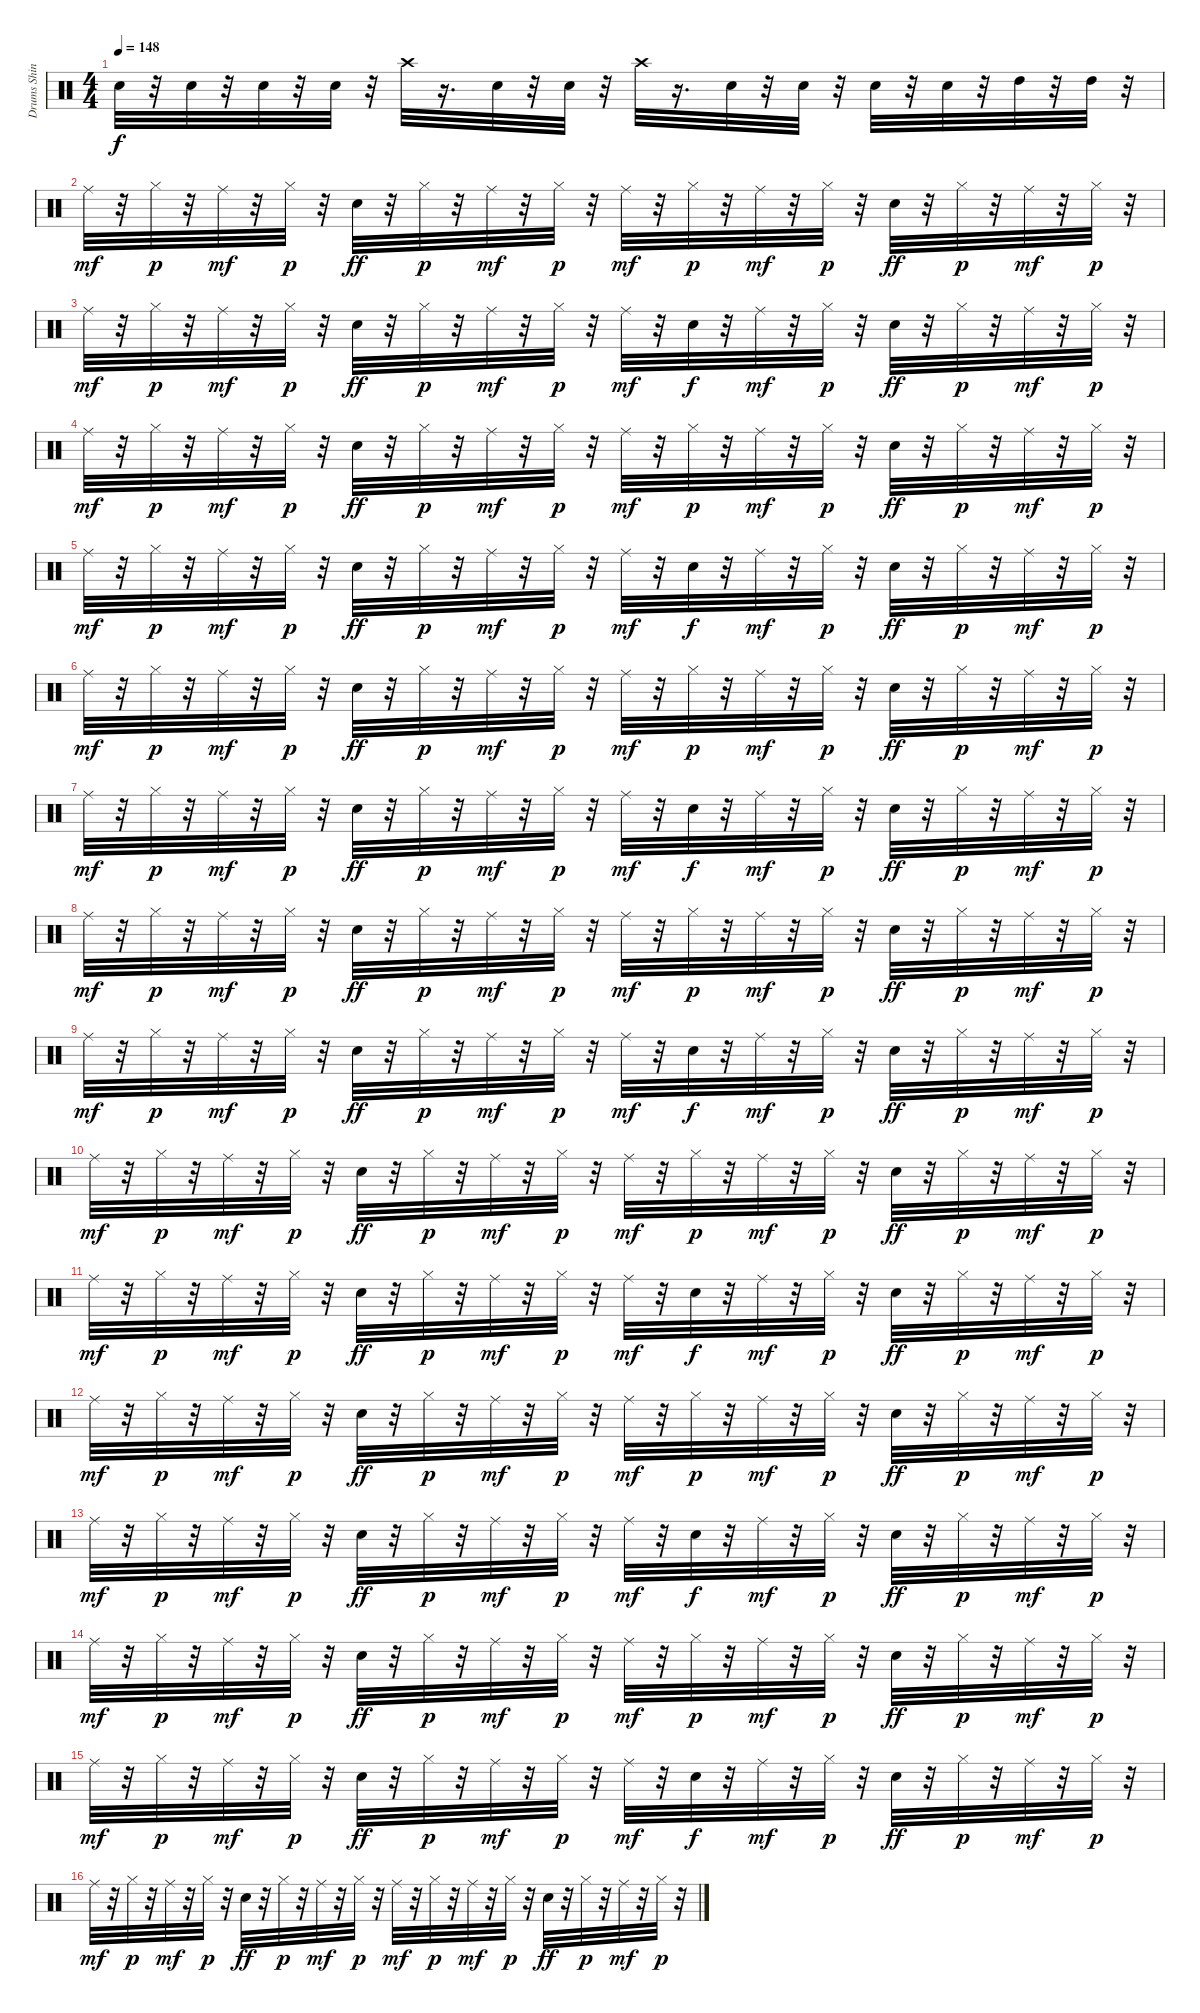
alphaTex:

\track ("Drums Shinya         " "Drums Shin") {instrument percussion}
\staff {score}
\articulation defaults
\ts (4 4)
\tempo 148
\clef neutral
\ks c "Electric Snare (hit)".32{dy f}
r.32 "Electric Snare (hit)".32 r.32 "Electric Snare (hit)".32 r.32 "Electric Snare (hit)".32 r.32 "Crash high (hit)".32 r.16{d} "Electric Snare (hit)".32 r.32 "Electric Snare (hit)".32 r.32 "Crash high (hit)".32 r.16{d} "Electric Snare (hit)".32 r.32 "Electric Snare (hit)".32 r.32 "Electric Snare (hit)".32 r.32 "Electric Snare (hit)".32 r.32 "High Tom (hit)".32 r.32 "High Tom (hit)".32 r.32 |
"Ride (middle)".32{dy mf} r.32 "Hi-Hat (closed)".32{dy p} r.32 "Ride (middle)".32{dy mf} r.32 "Hi-Hat (closed)".32{dy p} r.32 "Electric Snare (hit)".32{dy ff} r.32 "Hi-Hat (closed)".32{dy p} r.32 "Ride (middle)".32{dy mf} r.32 "Hi-Hat (closed)".32{dy p} r.32 "Ride (middle)".32{dy mf} r.32 "Hi-Hat (closed)".32{dy p} r.32 "Ride (middle)".32{dy mf} r.32 "Hi-Hat (closed)".32{dy p} r.32 "Electric Snare (hit)".32{dy ff} r.32 "Hi-Hat (closed)".32{dy p} r.32 "Ride (middle)".32{dy mf} r.32 "Hi-Hat (closed)".32{dy p} r.32 |
"Ride (middle)".32{dy mf} r.32 "Hi-Hat (closed)".32{dy p} r.32 "Ride (middle)".32{dy mf} r.32 "Hi-Hat (closed)".32{dy p} r.32 "Electric Snare (hit)".32{dy ff} r.32 "Hi-Hat (closed)".32{dy p} r.32 "Ride (middle)".32{dy mf} r.32 "Hi-Hat (closed)".32{dy p} r.32 "Ride (middle)".32{dy mf} r.32 "Electric Snare (hit)".32{dy f} r.32 "Ride (middle)".32{dy mf} r.32 "Hi-Hat (closed)".32{dy p} r.32 "Electric Snare (hit)".32{dy ff} r.32 "Hi-Hat (closed)".32{dy p} r.32 "Ride (middle)".32{dy mf} r.32 "Hi-Hat (closed)".32{dy p} r.32 |
"Ride (middle)".32{dy mf} r.32 "Hi-Hat (closed)".32{dy p} r.32 "Ride (middle)".32{dy mf} r.32 "Hi-Hat (closed)".32{dy p} r.32 "Electric Snare (hit)".32{dy ff} r.32 "Hi-Hat (closed)".32{dy p} r.32 "Ride (middle)".32{dy mf} r.32 "Hi-Hat (closed)".32{dy p} r.32 "Ride (middle)".32{dy mf} r.32 "Hi-Hat (closed)".32{dy p} r.32 "Ride (middle)".32{dy mf} r.32 "Hi-Hat (closed)".32{dy p} r.32 "Electric Snare (hit)".32{dy ff} r.32 "Hi-Hat (closed)".32{dy p} r.32 "Ride (middle)".32{dy mf} r.32 "Hi-Hat (closed)".32{dy p} r.32 |
"Ride (middle)".32{dy mf} r.32 "Hi-Hat (closed)".32{dy p} r.32 "Ride (middle)".32{dy mf} r.32 "Hi-Hat (closed)".32{dy p} r.32 "Electric Snare (hit)".32{dy ff} r.32 "Hi-Hat (closed)".32{dy p} r.32 "Ride (middle)".32{dy mf} r.32 "Hi-Hat (closed)".32{dy p} r.32 "Ride (middle)".32{dy mf} r.32 "Electric Snare (hit)".32{dy f} r.32 "Ride (middle)".32{dy mf} r.32 "Hi-Hat (closed)".32{dy p} r.32 "Electric Snare (hit)".32{dy ff} r.32 "Hi-Hat (closed)".32{dy p} r.32 "Ride (middle)".32{dy mf} r.32 "Hi-Hat (closed)".32{dy p} r.32 |
"Ride (middle)".32{dy mf} r.32 "Hi-Hat (closed)".32{dy p} r.32 "Ride (middle)".32{dy mf} r.32 "Hi-Hat (closed)".32{dy p} r.32 "Electric Snare (hit)".32{dy ff} r.32 "Hi-Hat (closed)".32{dy p} r.32 "Ride (middle)".32{dy mf} r.32 "Hi-Hat (closed)".32{dy p} r.32 "Ride (middle)".32{dy mf} r.32 "Hi-Hat (closed)".32{dy p} r.32 "Ride (middle)".32{dy mf} r.32 "Hi-Hat (closed)".32{dy p} r.32 "Electric Snare (hit)".32{dy ff} r.32 "Hi-Hat (closed)".32{dy p} r.32 "Ride (middle)".32{dy mf} r.32 "Hi-Hat (closed)".32{dy p} r.32 |
"Ride (middle)".32{dy mf} r.32 "Hi-Hat (closed)".32{dy p} r.32 "Ride (middle)".32{dy mf} r.32 "Hi-Hat (closed)".32{dy p} r.32 "Electric Snare (hit)".32{dy ff} r.32 "Hi-Hat (closed)".32{dy p} r.32 "Ride (middle)".32{dy mf} r.32 "Hi-Hat (closed)".32{dy p} r.32 "Ride (middle)".32{dy mf} r.32 "Electric Snare (hit)".32{dy f} r.32 "Ride (middle)".32{dy mf} r.32 "Hi-Hat (closed)".32{dy p} r.32 "Electric Snare (hit)".32{dy ff} r.32 "Hi-Hat (closed)".32{dy p} r.32 "Ride (middle)".32{dy mf} r.32 "Hi-Hat (closed)".32{dy p} r.32 |
"Ride (middle)".32{dy mf} r.32 "Hi-Hat (closed)".32{dy p} r.32 "Ride (middle)".32{dy mf} r.32 "Hi-Hat (closed)".32{dy p} r.32 "Electric Snare (hit)".32{dy ff} r.32 "Hi-Hat (closed)".32{dy p} r.32 "Ride (middle)".32{dy mf} r.32 "Hi-Hat (closed)".32{dy p} r.32 "Ride (middle)".32{dy mf} r.32 "Hi-Hat (closed)".32{dy p} r.32 "Ride (middle)".32{dy mf} r.32 "Hi-Hat (closed)".32{dy p} r.32 "Electric Snare (hit)".32{dy ff} r.32 "Hi-Hat (closed)".32{dy p} r.32 "Ride (middle)".32{dy mf} r.32 "Hi-Hat (closed)".32{dy p} r.32 |
"Ride (middle)".32{dy mf} r.32 "Hi-Hat (closed)".32{dy p} r.32 "Ride (middle)".32{dy mf} r.32 "Hi-Hat (closed)".32{dy p} r.32 "Electric Snare (hit)".32{dy ff} r.32 "Hi-Hat (closed)".32{dy p} r.32 "Ride (middle)".32{dy mf} r.32 "Hi-Hat (closed)".32{dy p} r.32 "Ride (middle)".32{dy mf} r.32 "Electric Snare (hit)".32{dy f} r.32 "Ride (middle)".32{dy mf} r.32 "Hi-Hat (closed)".32{dy p} r.32 "Electric Snare (hit)".32{dy ff} r.32 "Hi-Hat (closed)".32{dy p} r.32 "Ride (middle)".32{dy mf} r.32 "Hi-Hat (closed)".32{dy p} r.32 |
"Ride (middle)".32{dy mf} r.32 "Hi-Hat (closed)".32{dy p} r.32 "Ride (middle)".32{dy mf} r.32 "Hi-Hat (closed)".32{dy p} r.32 "Electric Snare (hit)".32{dy ff} r.32 "Hi-Hat (closed)".32{dy p} r.32 "Ride (middle)".32{dy mf} r.32 "Hi-Hat (closed)".32{dy p} r.32 "Ride (middle)".32{dy mf} r.32 "Hi-Hat (closed)".32{dy p} r.32 "Ride (middle)".32{dy mf} r.32 "Hi-Hat (closed)".32{dy p} r.32 "Electric Snare (hit)".32{dy ff} r.32 "Hi-Hat (closed)".32{dy p} r.32 "Ride (middle)".32{dy mf} r.32 "Hi-Hat (closed)".32{dy p} r.32 |
"Ride (middle)".32{dy mf} r.32 "Hi-Hat (closed)".32{dy p} r.32 "Ride (middle)".32{dy mf} r.32 "Hi-Hat (closed)".32{dy p} r.32 "Electric Snare (hit)".32{dy ff} r.32 "Hi-Hat (closed)".32{dy p} r.32 "Ride (middle)".32{dy mf} r.32 "Hi-Hat (closed)".32{dy p} r.32 "Ride (middle)".32{dy mf} r.32 "Electric Snare (hit)".32{dy f} r.32 "Ride (middle)".32{dy mf} r.32 "Hi-Hat (closed)".32{dy p} r.32 "Electric Snare (hit)".32{dy ff} r.32 "Hi-Hat (closed)".32{dy p} r.32 "Ride (middle)".32{dy mf} r.32 "Hi-Hat (closed)".32{dy p} r.32 |
"Ride (middle)".32{dy mf} r.32 "Hi-Hat (closed)".32{dy p} r.32 "Ride (middle)".32{dy mf} r.32 "Hi-Hat (closed)".32{dy p} r.32 "Electric Snare (hit)".32{dy ff} r.32 "Hi-Hat (closed)".32{dy p} r.32 "Ride (middle)".32{dy mf} r.32 "Hi-Hat (closed)".32{dy p} r.32 "Ride (middle)".32{dy mf} r.32 "Hi-Hat (closed)".32{dy p} r.32 "Ride (middle)".32{dy mf} r.32 "Hi-Hat (closed)".32{dy p} r.32 "Electric Snare (hit)".32{dy ff} r.32 "Hi-Hat (closed)".32{dy p} r.32 "Ride (middle)".32{dy mf} r.32 "Hi-Hat (closed)".32{dy p} r.32 |
"Ride (middle)".32{dy mf} r.32 "Hi-Hat (closed)".32{dy p} r.32 "Ride (middle)".32{dy mf} r.32 "Hi-Hat (closed)".32{dy p} r.32 "Electric Snare (hit)".32{dy ff} r.32 "Hi-Hat (closed)".32{dy p} r.32 "Ride (middle)".32{dy mf} r.32 "Hi-Hat (closed)".32{dy p} r.32 "Ride (middle)".32{dy mf} r.32 "Electric Snare (hit)".32{dy f} r.32 "Ride (middle)".32{dy mf} r.32 "Hi-Hat (closed)".32{dy p} r.32 "Electric Snare (hit)".32{dy ff} r.32 "Hi-Hat (closed)".32{dy p} r.32 "Ride (middle)".32{dy mf} r.32 "Hi-Hat (closed)".32{dy p} r.32 |
"Ride (middle)".32{dy mf} r.32 "Hi-Hat (closed)".32{dy p} r.32 "Ride (middle)".32{dy mf} r.32 "Hi-Hat (closed)".32{dy p} r.32 "Electric Snare (hit)".32{dy ff} r.32 "Hi-Hat (closed)".32{dy p} r.32 "Ride (middle)".32{dy mf} r.32 "Hi-Hat (closed)".32{dy p} r.32 "Ride (middle)".32{dy mf} r.32 "Hi-Hat (closed)".32{dy p} r.32 "Ride (middle)".32{dy mf} r.32 "Hi-Hat (closed)".32{dy p} r.32 "Electric Snare (hit)".32{dy ff} r.32 "Hi-Hat (closed)".32{dy p} r.32 "Ride (middle)".32{dy mf} r.32 "Hi-Hat (closed)".32{dy p} r.32 |
"Ride (middle)".32{dy mf} r.32 "Hi-Hat (closed)".32{dy p} r.32 "Ride (middle)".32{dy mf} r.32 "Hi-Hat (closed)".32{dy p} r.32 "Electric Snare (hit)".32{dy ff} r.32 "Hi-Hat (closed)".32{dy p} r.32 "Ride (middle)".32{dy mf} r.32 "Hi-Hat (closed)".32{dy p} r.32 "Ride (middle)".32{dy mf} r.32 "Electric Snare (hit)".32{dy f} r.32 "Ride (middle)".32{dy mf} r.32 "Hi-Hat (closed)".32{dy p} r.32 "Electric Snare (hit)".32{dy ff} r.32 "Hi-Hat (closed)".32{dy p} r.32 "Ride (middle)".32{dy mf} r.32 "Hi-Hat (closed)".32{dy p} r.32 |
"Ride (middle)".32{dy mf} r.32 "Hi-Hat (closed)".32{dy p} r.32 "Ride (middle)".32{dy mf} r.32 "Hi-Hat (closed)".32{dy p} r.32 "Electric Snare (hit)".32{dy ff} r.32 "Hi-Hat (closed)".32{dy p} r.32 "Ride (middle)".32{dy mf} r.32 "Hi-Hat (closed)".32{dy p} r.32 "Ride (middle)".32{dy mf} r.32 "Hi-Hat (closed)".32{dy p} r.32 "Ride (middle)".32{dy mf} r.32 "Hi-Hat (closed)".32{dy p} r.32 "Electric Snare (hit)".32{dy ff} r.32 "Hi-Hat (closed)".32{dy p} r.32 "Ride (middle)".32{dy mf} r.32 "Hi-Hat (closed)".32{dy p} r.32
